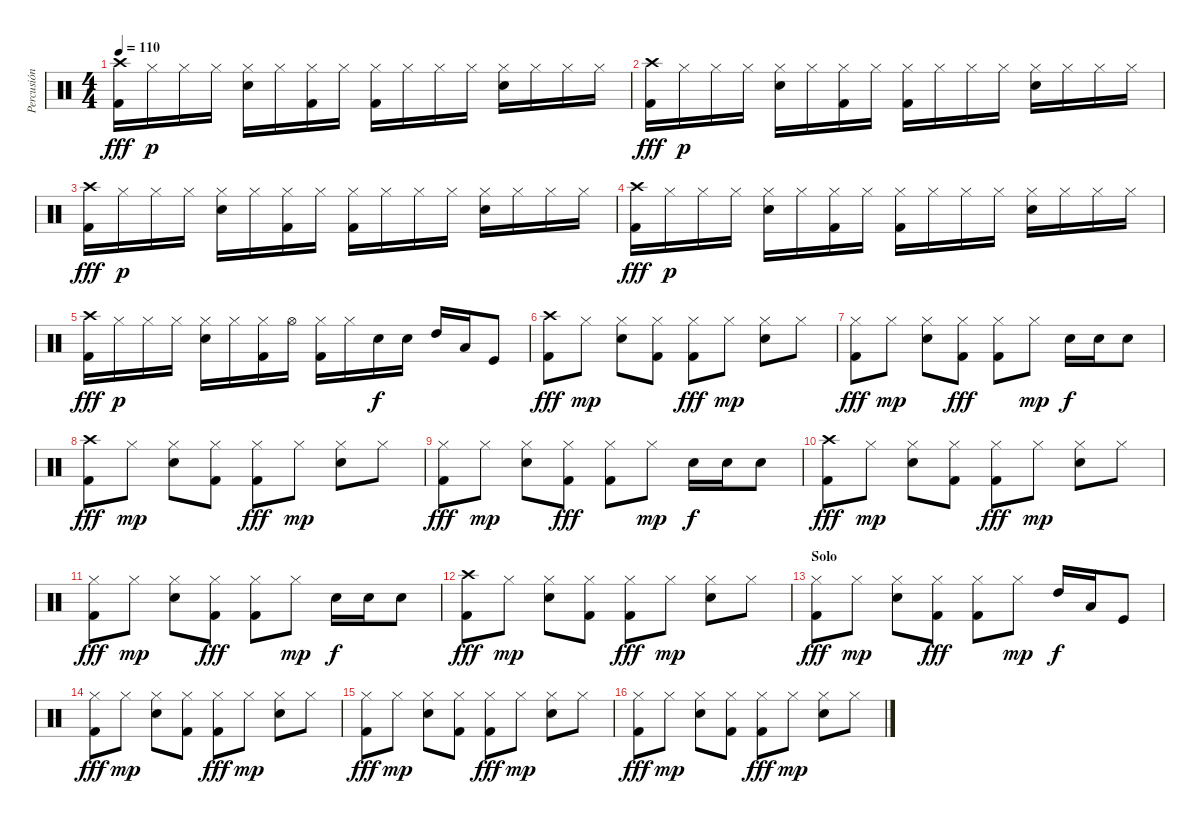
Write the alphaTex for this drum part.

\track ("Percusión" "Percusión") {instrument percussion}
\staff {score}
\articulation defaults
\ts (4 4)
\tempo 110
\clef neutral
\ks c
("Crash high (hit)" "Kick (hit) 2").16{dy fff} "Hi-Hat (closed)".16{dy p} "Hi-Hat (closed)".16 "Hi-Hat (closed)".16 ("Hi-Hat (closed)" "Snare (hit) 2").16 "Hi-Hat (closed)".16 ("Hi-Hat (closed)" "Kick (hit) 2").16 "Hi-Hat (closed)".16 ("Hi-Hat (closed)" "Kick (hit) 2").16 "Hi-Hat (closed)".16 "Hi-Hat (closed)".16 "Hi-Hat (closed)".16 ("Hi-Hat (closed)" "Snare (hit) 2").16 "Hi-Hat (closed)".16 "Hi-Hat (closed)".16 "Hi-Hat (closed)".16 |
("Crash high (hit)" "Kick (hit) 2").16{dy fff} "Hi-Hat (closed)".16{dy p} "Hi-Hat (closed)".16 "Hi-Hat (closed)".16 ("Hi-Hat (closed)" "Snare (hit) 2").16 "Hi-Hat (closed)".16 ("Hi-Hat (closed)" "Kick (hit) 2").16 "Hi-Hat (closed)".16 ("Hi-Hat (closed)" "Kick (hit) 2").16 "Hi-Hat (closed)".16 "Hi-Hat (closed)".16 "Hi-Hat (closed)".16 ("Hi-Hat (closed)" "Snare (hit) 2").16 "Hi-Hat (closed)".16 "Hi-Hat (closed)".16 "Hi-Hat (closed)".16 |
("Crash high (hit)" "Kick (hit) 2").16{dy fff} "Hi-Hat (closed)".16{dy p} "Hi-Hat (closed)".16 "Hi-Hat (closed)".16 ("Hi-Hat (closed)" "Snare (hit) 2").16 "Hi-Hat (closed)".16 ("Hi-Hat (closed)" "Kick (hit) 2").16 "Hi-Hat (closed)".16 ("Hi-Hat (closed)" "Kick (hit) 2").16 "Hi-Hat (closed)".16 "Hi-Hat (closed)".16 "Hi-Hat (closed)".16 ("Hi-Hat (closed)" "Snare (hit) 2").16 "Hi-Hat (closed)".16 "Hi-Hat (closed)".16 "Hi-Hat (closed)".16 |
("Crash high (hit)" "Kick (hit) 2").16{dy fff} "Hi-Hat (closed)".16{dy p} "Hi-Hat (closed)".16 "Hi-Hat (closed)".16 ("Hi-Hat (closed)" "Snare (hit) 2").16 "Hi-Hat (closed)".16 ("Hi-Hat (closed)" "Kick (hit) 2").16 "Hi-Hat (closed)".16 ("Hi-Hat (closed)" "Kick (hit) 2").16 "Hi-Hat (closed)".16 "Hi-Hat (closed)".16 "Hi-Hat (closed)".16 ("Hi-Hat (closed)" "Snare (hit) 2").16 "Hi-Hat (closed)".16 "Hi-Hat (closed)".16 "Hi-Hat (closed)".16 |
("Crash high (hit)" "Kick (hit) 2").16{dy fff} "Hi-Hat (closed)".16{dy p} "Hi-Hat (closed)".16 "Hi-Hat (closed)".16 ("Hi-Hat (closed)" "Snare (hit) 2").16 "Hi-Hat (closed)".16 ("Hi-Hat (closed)" "Kick (hit) 2").16 "Hi-Hat (open)".16 ("Hi-Hat (closed)" "Kick (hit) 2").16 "Hi-Hat (closed)".16 "Snare (hit) 2".16{dy f} "Snare (hit) 2".16 "High Tom (hit)".16 "Low Tom (hit)".16 "Kick (hit)".8 |
("Crash high (hit)" "Kick (hit) 2").8{dy fff} "Hi-Hat (closed)".8{dy mp} ("Hi-Hat (closed)" "Snare (hit) 2").8 ("Hi-Hat (closed)" "Kick (hit) 2").8 ("Hi-Hat (closed)" "Kick (hit) 2").8{dy fff} "Hi-Hat (closed)".8{dy mp} ("Hi-Hat (closed)" "Snare (hit) 2").8 "Hi-Hat (closed)".8 |
("Hi-Hat (closed)" "Kick (hit) 2").8{dy fff} "Hi-Hat (closed)".8{dy mp} ("Hi-Hat (closed)" "Snare (hit) 2").8 ("Hi-Hat (closed)" "Kick (hit) 2").8{dy fff} ("Hi-Hat (closed)" "Kick (hit) 2").8 "Hi-Hat (closed)".8{dy mp} "Snare (hit) 2".16{dy f} "Snare (hit) 2".16 "Snare (hit) 2".8 |
("Crash high (hit)" "Kick (hit) 2").8{dy fff} "Hi-Hat (closed)".8{dy mp} ("Hi-Hat (closed)" "Snare (hit) 2").8 ("Hi-Hat (closed)" "Kick (hit) 2").8 ("Hi-Hat (closed)" "Kick (hit) 2").8{dy fff} "Hi-Hat (closed)".8{dy mp} ("Hi-Hat (closed)" "Snare (hit) 2").8 "Hi-Hat (closed)".8 |
("Hi-Hat (closed)" "Kick (hit) 2").8{dy fff} "Hi-Hat (closed)".8{dy mp} ("Hi-Hat (closed)" "Snare (hit) 2").8 ("Hi-Hat (closed)" "Kick (hit) 2").8{dy fff} ("Hi-Hat (closed)" "Kick (hit) 2").8 "Hi-Hat (closed)".8{dy mp} "Snare (hit) 2".16{dy f} "Snare (hit) 2".16 "Snare (hit) 2".8 |
("Crash high (hit)" "Kick (hit) 2").8{dy fff} "Hi-Hat (closed)".8{dy mp} ("Hi-Hat (closed)" "Snare (hit) 2").8 ("Hi-Hat (closed)" "Kick (hit) 2").8 ("Hi-Hat (closed)" "Kick (hit) 2").8{dy fff} "Hi-Hat (closed)".8{dy mp} ("Hi-Hat (closed)" "Snare (hit) 2").8 "Hi-Hat (closed)".8 |
("Hi-Hat (closed)" "Kick (hit) 2").8{dy fff} "Hi-Hat (closed)".8{dy mp} ("Hi-Hat (closed)" "Snare (hit) 2").8 ("Hi-Hat (closed)" "Kick (hit) 2").8{dy fff} ("Hi-Hat (closed)" "Kick (hit) 2").8 "Hi-Hat (closed)".8{dy mp} "Snare (hit) 2".16{dy f} "Snare (hit) 2".16 "Snare (hit) 2".8 |
("Crash high (hit)" "Kick (hit) 2").8{dy fff} "Hi-Hat (closed)".8{dy mp} ("Hi-Hat (closed)" "Snare (hit) 2").8 ("Hi-Hat (closed)" "Kick (hit) 2").8 ("Hi-Hat (closed)" "Kick (hit) 2").8{dy fff} "Hi-Hat (closed)".8{dy mp} ("Hi-Hat (closed)" "Snare (hit) 2").8 "Hi-Hat (closed)".8 |
\section ("" "Solo")
("Hi-Hat (closed)" "Kick (hit) 2").8{dy fff} "Hi-Hat (closed)".8{dy mp} ("Hi-Hat (closed)" "Snare (hit) 2").8 ("Hi-Hat (closed)" "Kick (hit) 2").8{dy fff} ("Hi-Hat (closed)" "Kick (hit) 2").8 "Hi-Hat (closed)".8{dy mp} "High Tom (hit)".16{dy f} "Low Tom (hit)".16 "Kick (hit)".8 |
("Hi-Hat (closed)" "Kick (hit) 2").8{dy fff} "Hi-Hat (closed)".8{dy mp} ("Hi-Hat (closed)" "Snare (hit) 2").8 ("Hi-Hat (closed)" "Kick (hit) 2").8 ("Hi-Hat (closed)" "Kick (hit) 2").8{dy fff} "Hi-Hat (closed)".8{dy mp} ("Hi-Hat (closed)" "Snare (hit) 2").8 "Hi-Hat (closed)".8 |
("Hi-Hat (closed)" "Kick (hit) 2").8{dy fff} "Hi-Hat (closed)".8{dy mp} ("Hi-Hat (closed)" "Snare (hit) 2").8 ("Hi-Hat (closed)" "Kick (hit) 2").8 ("Hi-Hat (closed)" "Kick (hit) 2").8{dy fff} "Hi-Hat (closed)".8{dy mp} ("Hi-Hat (closed)" "Snare (hit) 2").8 "Hi-Hat (closed)".8 |
("Hi-Hat (closed)" "Kick (hit) 2").8{dy fff} "Hi-Hat (closed)".8{dy mp} ("Hi-Hat (closed)" "Snare (hit) 2").8 ("Hi-Hat (closed)" "Kick (hit) 2").8 ("Hi-Hat (closed)" "Kick (hit) 2").8{dy fff} "Hi-Hat (closed)".8{dy mp} ("Hi-Hat (closed)" "Snare (hit) 2").8 "Hi-Hat (closed)".8
